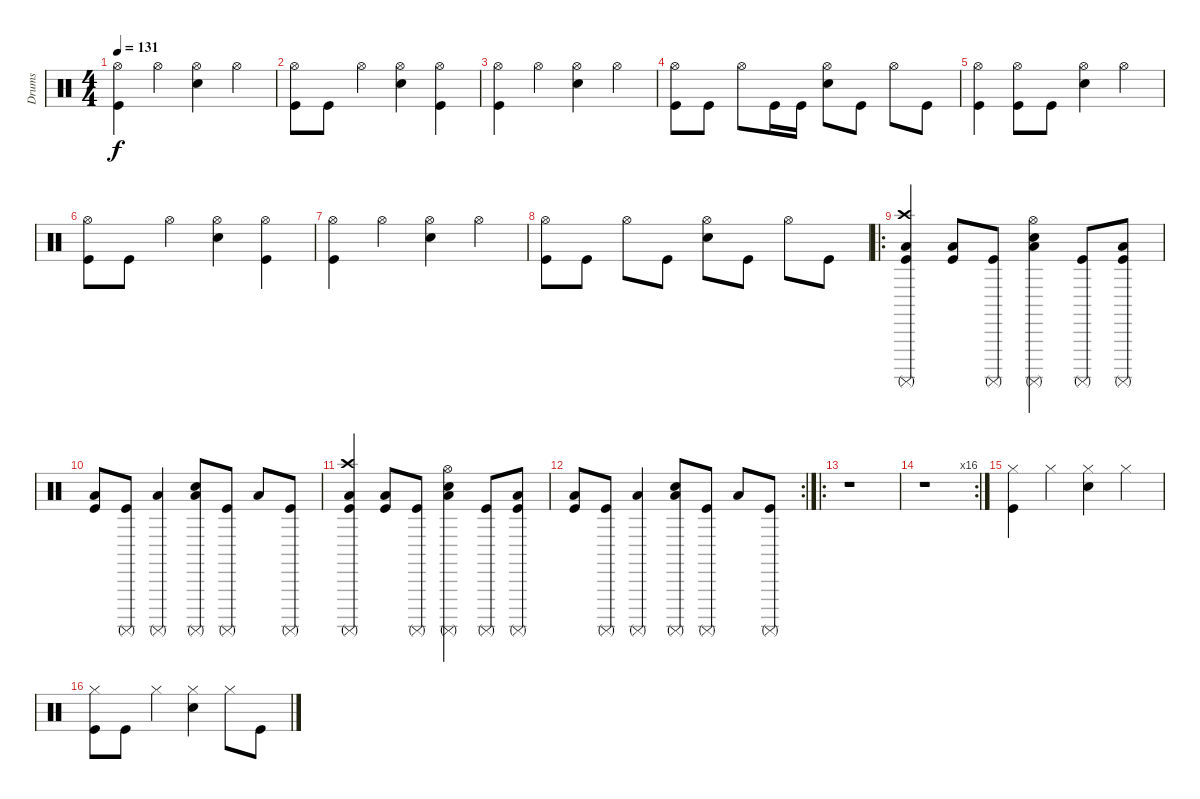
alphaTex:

\track ("Drums" "Drums") {instrument percussion}
\staff {score}
\articulation defaults
\ts (4 4)
\tempo 131
\clef neutral
\ks c
("Hi-Hat (open)" "Kick (hit)").4{dy f} "Hi-Hat (open)".4 ("Hi-Hat (open)" "Snare (hit) 2").4 "Hi-Hat (open)".4 |
("Hi-Hat (open)" "Kick (hit)").8 "Kick (hit)".8 "Hi-Hat (open)".4 ("Hi-Hat (open)" "Snare (hit) 2").4 ("Hi-Hat (open)" "Kick (hit)").4 |
("Hi-Hat (open)" "Kick (hit)").4 "Hi-Hat (open)".4 ("Hi-Hat (open)" "Snare (hit) 2").4 "Hi-Hat (open)".4 |
("Hi-Hat (open)" "Kick (hit)").8 "Kick (hit)".8 "Hi-Hat (open)".8 "Kick (hit)".16 "Kick (hit)".16 ("Hi-Hat (open)" "Snare (hit) 2").8 "Kick (hit)".8 "Hi-Hat (open)".8 "Kick (hit)".8 |
("Hi-Hat (open)" "Kick (hit)").4 ("Hi-Hat (open)" "Kick (hit)").8 "Kick (hit)".8 ("Hi-Hat (open)" "Snare (hit) 2").4 "Hi-Hat (open)".4 |
("Hi-Hat (open)" "Kick (hit)").8 "Kick (hit)".8 "Hi-Hat (open)".4 ("Hi-Hat (open)" "Snare (hit) 2").4 ("Hi-Hat (open)" "Kick (hit)").4 |
("Hi-Hat (open)" "Kick (hit)").4 "Hi-Hat (open)".4 ("Hi-Hat (open)" "Snare (hit) 2").4 "Hi-Hat (open)".4 |
("Hi-Hat (open)" "Kick (hit)").8 "Kick (hit)".8 "Hi-Hat (open)".8 "Kick (hit)".8 ("Hi-Hat (open)" "Snare (hit) 2").8 "Kick (hit)".8 "Hi-Hat (open)".8 "Kick (hit)".8 |
\ro
("Crash high (hit)" "Surdo (mute)" "Low Floor Tom (hit)" "Kick (hit)").4 ("Low Floor Tom (hit)" "Kick (hit)").8 ("Surdo (mute)" "Kick (hit)").8 ("Hi-Hat (open)" "Surdo (mute)" "Low Floor Tom (hit)" "Snare (hit) 2").4 ("Surdo (mute)" "Kick (hit)").8 ("Surdo (mute)" "Low Floor Tom (hit)" "Kick (hit)").8 |
("Low Floor Tom (hit)" "Kick (hit)").8 ("Surdo (mute)" "Kick (hit)").8 ("Surdo (mute)" "Low Floor Tom (hit)").4 ("Surdo (mute)" "Low Floor Tom (hit)" "Snare (hit) 2").8 ("Surdo (mute)" "Kick (hit)").8 "Low Floor Tom (hit)".8 ("Surdo (mute)" "Kick (hit)").8 |
("Crash high (hit)" "Surdo (mute)" "Low Floor Tom (hit)" "Kick (hit)").4 ("Low Floor Tom (hit)" "Kick (hit)").8 ("Surdo (mute)" "Kick (hit)").8 ("Hi-Hat (open)" "Surdo (mute)" "Low Floor Tom (hit)" "Snare (hit) 2").4 ("Surdo (mute)" "Kick (hit)").8 ("Surdo (mute)" "Low Floor Tom (hit)" "Kick (hit)").8 |
\rc 2
("Low Floor Tom (hit)" "Kick (hit)").8 ("Surdo (mute)" "Kick (hit)").8 ("Surdo (mute)" "Low Floor Tom (hit)").4 ("Surdo (mute)" "Low Floor Tom (hit)" "Snare (hit) 2").8 ("Surdo (mute)" "Kick (hit)").8 "Low Floor Tom (hit)".8 ("Surdo (mute)" "Kick (hit)").8 |
\ro
r.1 |
\rc 16
r.1 |
("Hi-Hat (closed)" "Kick (hit)").4 "Hi-Hat (closed)".4 ("Hi-Hat (closed)" "Snare (hit) 2").4 "Hi-Hat (closed)".4 |
("Hi-Hat (closed)" "Kick (hit)").8 "Kick (hit)".8 "Hi-Hat (closed)".4 ("Hi-Hat (closed)" "Snare (hit) 2").4 "Hi-Hat (closed)".8 "Kick (hit)".8
